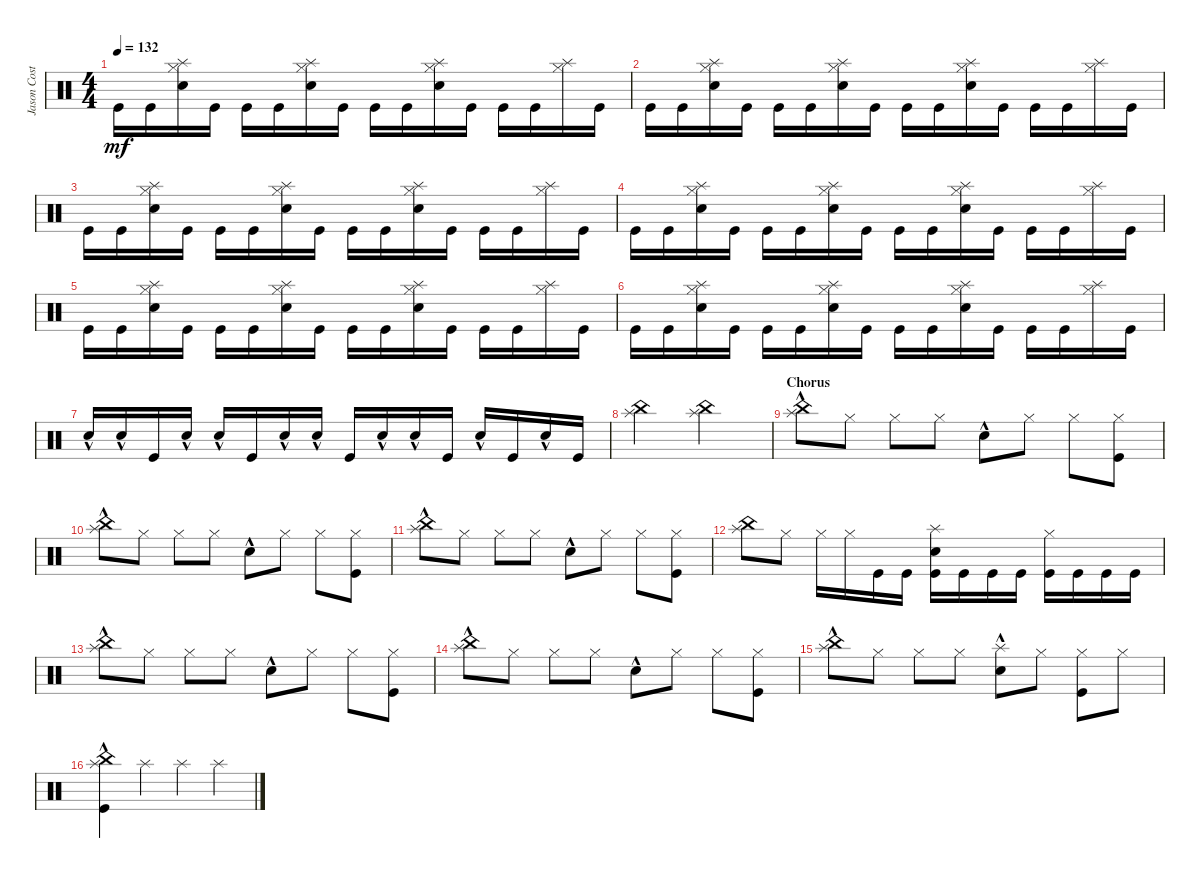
\track ("Jason Costa" "Jason Cost") {instrument percussion}
\staff {score}
\articulation defaults
\ts (4 4)
\tempo 132
\clef neutral
\ks c "Kick (hit)".16{dy mf} "Kick (hit)".16
("Snare (hit) 2" "Hi-Hat (closed)" "Splash (hit)").16 "Kick (hit)".16 "Kick (hit)".16 "Kick (hit)".16 ("Snare (hit) 2" "Hi-Hat (closed)" "Splash (hit)").16 "Kick (hit)".16 "Kick (hit)".16 "Kick (hit)".16 ("Snare (hit) 2" "Hi-Hat (closed)" "Splash (hit)").16 "Kick (hit)".16 "Kick (hit)".16 "Kick (hit)".16 ("Splash (hit)" "Hi-Hat (closed)").16 "Kick (hit)".16 |
"Kick (hit)".16 "Kick (hit)".16 ("Snare (hit) 2" "Hi-Hat (closed)" "Splash (hit)").16 "Kick (hit)".16 "Kick (hit)".16 "Kick (hit)".16 ("Snare (hit) 2" "Hi-Hat (closed)" "Splash (hit)").16 "Kick (hit)".16 "Kick (hit)".16 "Kick (hit)".16 ("Snare (hit) 2" "Hi-Hat (closed)" "Splash (hit)").16 "Kick (hit)".16 "Kick (hit)".16 "Kick (hit)".16 ("Splash (hit)" "Hi-Hat (closed)").16 "Kick (hit)".16 |
"Kick (hit)".16 "Kick (hit)".16 ("Snare (hit) 2" "Hi-Hat (closed)" "Splash (hit)").16 "Kick (hit)".16 "Kick (hit)".16 "Kick (hit)".16 ("Snare (hit) 2" "Hi-Hat (closed)" "Splash (hit)").16 "Kick (hit)".16 "Kick (hit)".16 "Kick (hit)".16 ("Snare (hit) 2" "Hi-Hat (closed)" "Splash (hit)").16 "Kick (hit)".16 "Kick (hit)".16 "Kick (hit)".16 ("Splash (hit)" "Hi-Hat (closed)").16 "Kick (hit)".16 |
"Kick (hit)".16 "Kick (hit)".16 ("Snare (hit) 2" "Hi-Hat (closed)" "Splash (hit)").16 "Kick (hit)".16 "Kick (hit)".16 "Kick (hit)".16 ("Snare (hit) 2" "Hi-Hat (closed)" "Splash (hit)").16 "Kick (hit)".16 "Kick (hit)".16 "Kick (hit)".16 ("Snare (hit) 2" "Hi-Hat (closed)" "Splash (hit)").16 "Kick (hit)".16 "Kick (hit)".16 "Kick (hit)".16 ("Splash (hit)" "Hi-Hat (closed)").16 "Kick (hit)".16 |
"Kick (hit)".16 "Kick (hit)".16 ("Snare (hit) 2" "Hi-Hat (closed)" "Splash (hit)").16 "Kick (hit)".16 "Kick (hit)".16 "Kick (hit)".16 ("Snare (hit) 2" "Hi-Hat (closed)" "Splash (hit)").16 "Kick (hit)".16 "Kick (hit)".16 "Kick (hit)".16 ("Snare (hit) 2" "Hi-Hat (closed)" "Splash (hit)").16 "Kick (hit)".16 "Kick (hit)".16 "Kick (hit)".16 ("Splash (hit)" "Hi-Hat (closed)").16 "Kick (hit)".16 |
"Kick (hit)".16 "Kick (hit)".16 ("Snare (hit) 2" "Hi-Hat (closed)" "Splash (hit)").16 "Kick (hit)".16 "Kick (hit)".16 "Kick (hit)".16 ("Snare (hit) 2" "Hi-Hat (closed)" "Splash (hit)").16 "Kick (hit)".16 "Kick (hit)".16 "Kick (hit)".16 ("Snare (hit) 2" "Hi-Hat (closed)" "Splash (hit)").16 "Kick (hit)".16 "Kick (hit)".16 "Kick (hit)".16 ("Splash (hit)" "Hi-Hat (closed)").16 "Kick (hit)".16 |
"Snare (hit) 2"{hac}.16 "Snare (hit) 2"{hac}.16 "Kick (hit)".16 "Snare (hit) 2"{hac}.16 "Snare (hit) 2"{hac}.16 "Kick (hit)".16 "Snare (hit) 2"{hac}.16 "Snare (hit) 2"{hac}.16 "Kick (hit)".16 "Snare (hit) 2"{hac}.16 "Snare (hit) 2"{hac}.16 "Kick (hit)".16 "Snare (hit) 2"{hac}.16 "Kick (hit)".16 "Snare (hit) 2"{hac}.16 "Kick (hit)".16 |
("Splash (hit)" "China (hit)").2 ("China (hit)" "Splash (hit)").2 |
\section ("" "Chorus")
("China (hit)"{hac} "Splash (hit)").8 "Hi-Hat (closed)".8 "Hi-Hat (closed)".8 "Hi-Hat (closed)".8 "Snare (hit) 2"{hac}.8 "Hi-Hat (closed)".8 "Hi-Hat (closed)".8 ("Hi-Hat (closed)" "Kick (hit)").8 |
("Splash (hit)" "China (hit)"{hac}).8 "Hi-Hat (closed)".8 "Hi-Hat (closed)".8 "Hi-Hat (closed)".8 "Snare (hit) 2"{hac}.8 "Hi-Hat (closed)".8 "Hi-Hat (closed)".8 ("Kick (hit)" "Hi-Hat (closed)").8 |
("Splash (hit)" "China (hit)"{hac}).8 "Hi-Hat (closed)".8 "Hi-Hat (closed)".8 "Hi-Hat (closed)".8 "Snare (hit) 2"{hac}.8 "Hi-Hat (closed)".8 "Hi-Hat (closed)".8 ("Kick (hit)" "Hi-Hat (closed)").8 |
("Splash (hit)" "China (hit)").8 "Hi-Hat (closed)".8 "Hi-Hat (closed)".16 "Hi-Hat (closed)".16 "Kick (hit)".16 "Kick (hit)".16 ("Snare (hit) 2" "Splash (hit)" "Kick (hit)").16 "Kick (hit)".16 "Kick (hit)".16 "Kick (hit)".16 ("Hi-Hat (closed)" "Kick (hit)").16 "Kick (hit)".16 "Kick (hit)".16 "Kick (hit)".16 |
("China (hit)"{hac} "Splash (hit)").8 "Hi-Hat (closed)".8 "Hi-Hat (closed)".8 "Hi-Hat (closed)".8 "Snare (hit) 2"{hac}.8 "Hi-Hat (closed)".8 "Hi-Hat (closed)".8 ("Hi-Hat (closed)" "Kick (hit)").8 |
("China (hit)"{hac} "Splash (hit)").8 "Hi-Hat (closed)".8 "Hi-Hat (closed)".8 "Hi-Hat (closed)".8 "Snare (hit) 2"{hac}.8 "Hi-Hat (closed)".8 "Hi-Hat (closed)".8 ("Hi-Hat (closed)" "Kick (hit)").8 |
("Splash (hit)" "China (hit)"{hac}).8 "Hi-Hat (closed)".8 "Hi-Hat (closed)".8 "Hi-Hat (closed)".8 ("Snare (hit) 2" "Splash (hit)"{hac}).8 "Hi-Hat (closed)".8 ("Hi-Hat (closed)" "Kick (hit)").8 "Hi-Hat (closed)".8 |
("China (hit)" "Splash (hit)"{hac} "Kick (hit)").4 "Splash (hit)".4 "Splash (hit)".4 "Splash (hit)".4
